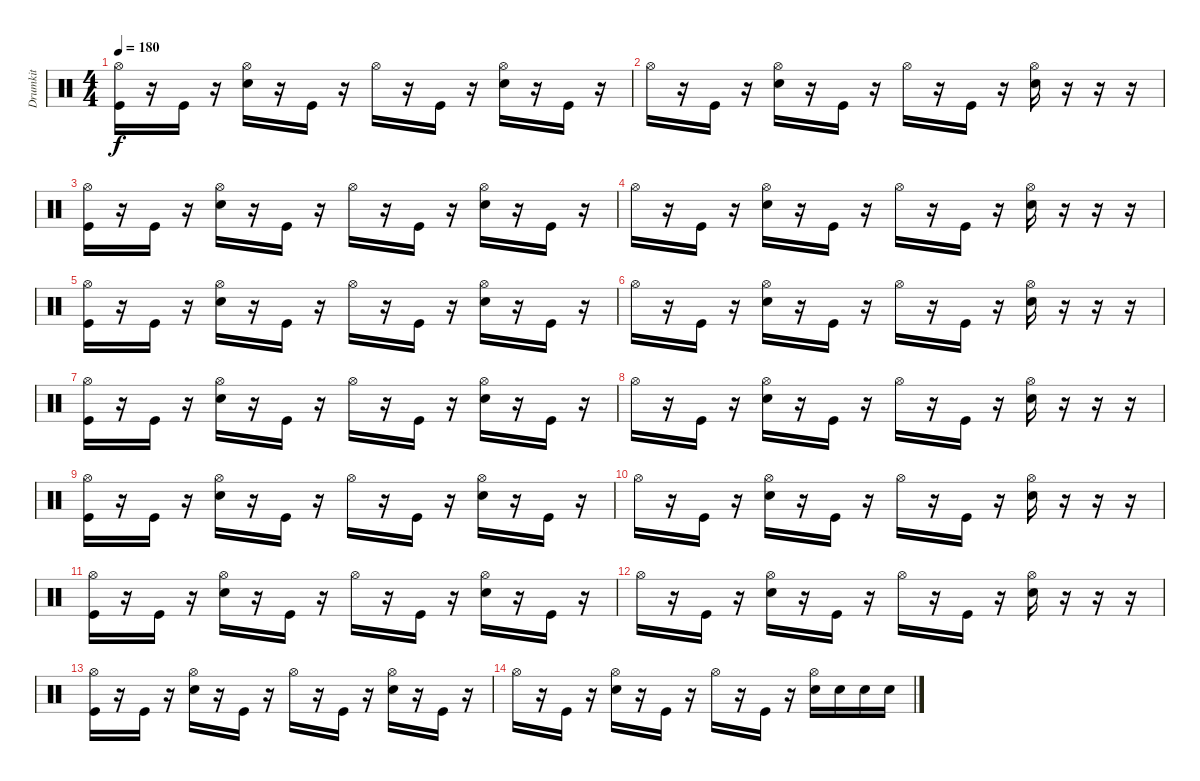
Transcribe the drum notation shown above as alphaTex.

\track ("Drumkit" "Drumkit") {instrument percussion}
\staff {score}
\articulation defaults
\ts (4 4)
\tempo 180
\clef neutral
\ks c
("Hi-Hat (open)" "Kick (hit)").16{dy f} r.16 "Kick (hit)".16 r.16 ("Hi-Hat (open)" "Snare (hit) 2").16 r.16 "Kick (hit)".16 r.16 "Hi-Hat (open)".16 r.16 "Kick (hit)".16 r.16 ("Hi-Hat (open)" "Snare (hit) 2").16 r.16 "Kick (hit)".16 r.16 |
"Hi-Hat (open)".16 r.16 "Kick (hit)".16 r.16 ("Hi-Hat (open)" "Snare (hit) 2").16 r.16 "Kick (hit)".16 r.16 "Hi-Hat (open)".16 r.16 "Kick (hit)".16 r.16 ("Hi-Hat (open)" "Snare (hit) 2").16 r.16 r.16 r.16 |
("Hi-Hat (open)" "Kick (hit)").16 r.16 "Kick (hit)".16 r.16 ("Hi-Hat (open)" "Snare (hit) 2").16 r.16 "Kick (hit)".16 r.16 "Hi-Hat (open)".16 r.16 "Kick (hit)".16 r.16 ("Hi-Hat (open)" "Snare (hit) 2").16 r.16 "Kick (hit)".16 r.16 |
"Hi-Hat (open)".16 r.16 "Kick (hit)".16 r.16 ("Hi-Hat (open)" "Snare (hit) 2").16 r.16 "Kick (hit)".16 r.16 "Hi-Hat (open)".16 r.16 "Kick (hit)".16 r.16 ("Hi-Hat (open)" "Snare (hit) 2").16 r.16 r.16 r.16 |
("Hi-Hat (open)" "Kick (hit)").16 r.16 "Kick (hit)".16 r.16 ("Hi-Hat (open)" "Snare (hit) 2").16 r.16 "Kick (hit)".16 r.16 "Hi-Hat (open)".16 r.16 "Kick (hit)".16 r.16 ("Hi-Hat (open)" "Snare (hit) 2").16 r.16 "Kick (hit)".16 r.16 |
"Hi-Hat (open)".16 r.16 "Kick (hit)".16 r.16 ("Hi-Hat (open)" "Snare (hit) 2").16 r.16 "Kick (hit)".16 r.16 "Hi-Hat (open)".16 r.16 "Kick (hit)".16 r.16 ("Hi-Hat (open)" "Snare (hit) 2").16 r.16 r.16 r.16 |
("Hi-Hat (open)" "Kick (hit)").16 r.16 "Kick (hit)".16 r.16 ("Hi-Hat (open)" "Snare (hit) 2").16 r.16 "Kick (hit)".16 r.16 "Hi-Hat (open)".16 r.16 "Kick (hit)".16 r.16 ("Hi-Hat (open)" "Snare (hit) 2").16 r.16 "Kick (hit)".16 r.16 |
"Hi-Hat (open)".16 r.16 "Kick (hit)".16 r.16 ("Hi-Hat (open)" "Snare (hit) 2").16 r.16 "Kick (hit)".16 r.16 "Hi-Hat (open)".16 r.16 "Kick (hit)".16 r.16 ("Hi-Hat (open)" "Snare (hit) 2").16 r.16 r.16 r.16 |
("Hi-Hat (open)" "Kick (hit)").16 r.16 "Kick (hit)".16 r.16 ("Hi-Hat (open)" "Snare (hit) 2").16 r.16 "Kick (hit)".16 r.16 "Hi-Hat (open)".16 r.16 "Kick (hit)".16 r.16 ("Hi-Hat (open)" "Snare (hit) 2").16 r.16 "Kick (hit)".16 r.16 |
"Hi-Hat (open)".16 r.16 "Kick (hit)".16 r.16 ("Hi-Hat (open)" "Snare (hit) 2").16 r.16 "Kick (hit)".16 r.16 "Hi-Hat (open)".16 r.16 "Kick (hit)".16 r.16 ("Hi-Hat (open)" "Snare (hit) 2").16 r.16 r.16 r.16 |
("Hi-Hat (open)" "Kick (hit)").16 r.16 "Kick (hit)".16 r.16 ("Hi-Hat (open)" "Snare (hit) 2").16 r.16 "Kick (hit)".16 r.16 "Hi-Hat (open)".16 r.16 "Kick (hit)".16 r.16 ("Hi-Hat (open)" "Snare (hit) 2").16 r.16 "Kick (hit)".16 r.16 |
"Hi-Hat (open)".16 r.16 "Kick (hit)".16 r.16 ("Hi-Hat (open)" "Snare (hit) 2").16 r.16 "Kick (hit)".16 r.16 "Hi-Hat (open)".16 r.16 "Kick (hit)".16 r.16 ("Hi-Hat (open)" "Snare (hit) 2").16 r.16 r.16 r.16 |
("Hi-Hat (open)" "Kick (hit)").16 r.16 "Kick (hit)".16 r.16 ("Hi-Hat (open)" "Snare (hit) 2").16 r.16 "Kick (hit)".16 r.16 "Hi-Hat (open)".16 r.16 "Kick (hit)".16 r.16 ("Hi-Hat (open)" "Snare (hit) 2").16 r.16 "Kick (hit)".16 r.16 |
"Hi-Hat (open)".16 r.16 "Kick (hit)".16 r.16 ("Hi-Hat (open)" "Snare (hit) 2").16 r.16 "Kick (hit)".16 r.16 "Hi-Hat (open)".16 r.16 "Kick (hit)".16 r.16 ("Hi-Hat (open)" "Snare (hit) 2").16 "Snare (hit) 2".16 "Snare (hit) 2".16 "Snare (hit) 2".16
